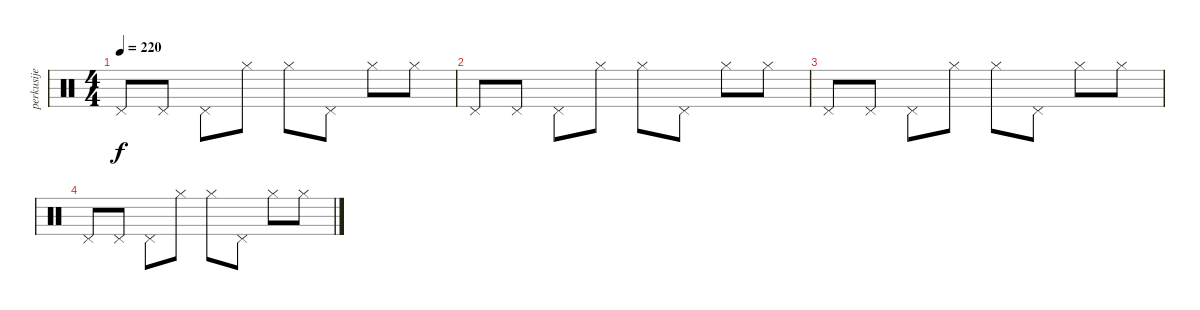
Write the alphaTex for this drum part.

\track ("perkusije" "perkusije") {instrument percussion}
\staff {score}
\articulation defaults
\ts (4 4)
\tempo 220
\clef neutral
\ks c "Pedal Hi-Hat (hit)".8{dy f} "Pedal Hi-Hat (hit)".8 "Pedal Hi-Hat (hit)".8 "Hi-Hat (closed)".8 "Hi-Hat (closed)".8 "Pedal Hi-Hat (hit)".8 "Hi-Hat (closed)".8 "Hi-Hat (closed)".8
|
"Pedal Hi-Hat (hit)".8 "Pedal Hi-Hat (hit)".8 "Pedal Hi-Hat (hit)".8 "Hi-Hat (closed)".8 "Hi-Hat (closed)".8 "Pedal Hi-Hat (hit)".8 "Hi-Hat (closed)".8 "Hi-Hat (closed)".8 |
"Pedal Hi-Hat (hit)".8 "Pedal Hi-Hat (hit)".8 "Pedal Hi-Hat (hit)".8 "Hi-Hat (closed)".8 "Hi-Hat (closed)".8 "Pedal Hi-Hat (hit)".8 "Hi-Hat (closed)".8 "Hi-Hat (closed)".8 |
"Pedal Hi-Hat (hit)".8 "Pedal Hi-Hat (hit)".8 "Pedal Hi-Hat (hit)".8 "Hi-Hat (closed)".8 "Hi-Hat (closed)".8 "Pedal Hi-Hat (hit)".8 "Hi-Hat (closed)".8 "Hi-Hat (closed)".8
